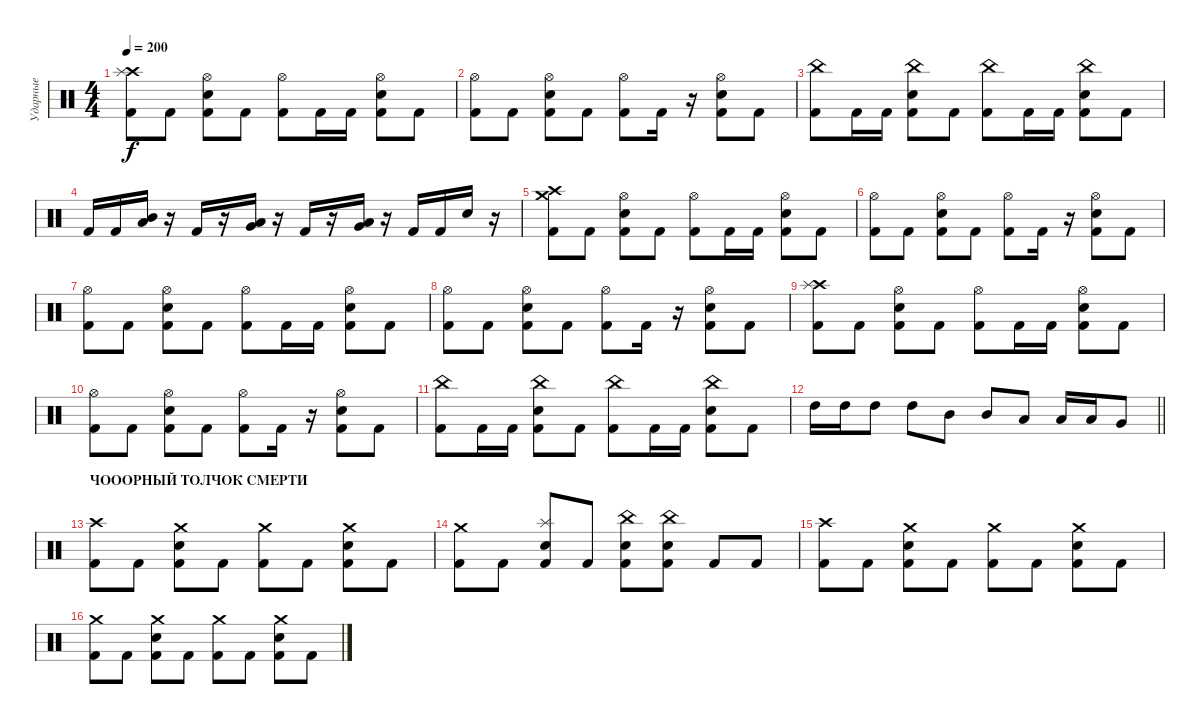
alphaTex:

\track ("Ударные" "Ударные") {instrument percussion}
\staff {score}
\articulation defaults
\ts (4 4)
\tempo 200
\clef neutral
\ks c
("Kick (hit) 2" "Crash high (hit)" "Splash (hit)").8{dy f} "Kick (hit) 2".8 ("Kick (hit) 2" "Electric Snare (hit)" "Hi-Hat (open)").8 "Kick (hit) 2".8 ("Kick (hit) 2" "Hi-Hat (open)").8 "Kick (hit) 2".16 "Kick (hit) 2".16 ("Kick (hit) 2" "Electric Snare (hit)" "Hi-Hat (open)").8 "Kick (hit) 2".8 |
("Kick (hit) 2" "Hi-Hat (open)").8 "Kick (hit) 2".8 ("Kick (hit) 2" "Electric Snare (hit)" "Hi-Hat (open)").8 "Kick (hit) 2".8 ("Kick (hit) 2" "Hi-Hat (open)").8 "Kick (hit) 2".16 r.16 ("Kick (hit) 2" "Electric Snare (hit)" "Hi-Hat (open)").8 "Kick (hit) 2".8 |
("Kick (hit) 2" "China (hit)").8 "Kick (hit) 2".16 "Kick (hit) 2".16 ("Kick (hit) 2" "Electric Snare (hit)" "China (hit)").8 "Kick (hit) 2".8 ("Kick (hit) 2" "China (hit)").8 "Kick (hit) 2".16 "Kick (hit) 2".16 ("Kick (hit) 2" "Electric Snare (hit)" "China (hit)").8 "Kick (hit) 2".8 |
"Kick (hit) 2".16 "Kick (hit) 2".16 ("Low Tom (hit)" "Mid Tom (hit)").16 r.16 "Kick (hit) 2".16 r.16 ("Very Low Tom (hit)" "Low Tom (hit)").16 r.16 "Kick (hit) 2".16 r.16 ("Low Floor Tom (hit)" "Very Low Tom (hit)").16 r.16 "Kick (hit) 2".16 "Kick (hit) 2".16 "Electric Snare (hit)".16 r.16 |
("Kick (hit) 2" "Crash high (hit)" "Crash medium (hit)").8 "Kick (hit) 2".8 ("Kick (hit) 2" "Electric Snare (hit)" "Hi-Hat (open)").8 "Kick (hit) 2".8 ("Kick (hit) 2" "Hi-Hat (open)").8 "Kick (hit) 2".16 "Kick (hit) 2".16 ("Kick (hit) 2" "Electric Snare (hit)" "Hi-Hat (open)").8 "Kick (hit) 2".8 |
("Kick (hit) 2" "Hi-Hat (open)").8 "Kick (hit) 2".8 ("Kick (hit) 2" "Electric Snare (hit)" "Hi-Hat (open)").8 "Kick (hit) 2".8 ("Kick (hit) 2" "Hi-Hat (open)").8 "Kick (hit) 2".16 r.16 ("Kick (hit) 2" "Electric Snare (hit)" "Hi-Hat (open)").8 "Kick (hit) 2".8 |
("Kick (hit) 2" "Hi-Hat (open)").8 "Kick (hit) 2".8 ("Kick (hit) 2" "Electric Snare (hit)" "Hi-Hat (open)").8 "Kick (hit) 2".8 ("Kick (hit) 2" "Hi-Hat (open)").8 "Kick (hit) 2".16 "Kick (hit) 2".16 ("Kick (hit) 2" "Electric Snare (hit)" "Hi-Hat (open)").8 "Kick (hit) 2".8 |
("Kick (hit) 2" "Hi-Hat (open)").8 "Kick (hit) 2".8 ("Kick (hit) 2" "Electric Snare (hit)" "Hi-Hat (open)").8 "Kick (hit) 2".8 ("Kick (hit) 2" "Hi-Hat (open)").8 "Kick (hit) 2".16 r.16 ("Kick (hit) 2" "Electric Snare (hit)" "Hi-Hat (open)").8 "Kick (hit) 2".8 |
("Kick (hit) 2" "Crash high (hit)" "Splash (hit)").8 "Kick (hit) 2".8 ("Kick (hit) 2" "Electric Snare (hit)" "Hi-Hat (open)").8 "Kick (hit) 2".8 ("Kick (hit) 2" "Hi-Hat (open)").8 "Kick (hit) 2".16 "Kick (hit) 2".16 ("Kick (hit) 2" "Electric Snare (hit)" "Hi-Hat (open)").8 "Kick (hit) 2".8 |
("Kick (hit) 2" "Hi-Hat (open)").8 "Kick (hit) 2".8 ("Kick (hit) 2" "Electric Snare (hit)" "Hi-Hat (open)").8 "Kick (hit) 2".8 ("Kick (hit) 2" "Hi-Hat (open)").8 "Kick (hit) 2".16 r.16 ("Kick (hit) 2" "Electric Snare (hit)" "Hi-Hat (open)").8 "Kick (hit) 2".8 |
("Kick (hit) 2" "China (hit)").8 "Kick (hit) 2".16 "Kick (hit) 2".16 ("Kick (hit) 2" "Electric Snare (hit)" "China (hit)").8 "Kick (hit) 2".8 ("Kick (hit) 2" "China (hit)").8 "Kick (hit) 2".16 "Kick (hit) 2".16 ("Kick (hit) 2" "Electric Snare (hit)" "China (hit)").8 "Kick (hit) 2".8 |
\barLineRight lightlight "High Tom (hit)".16 "High Tom (hit)".16 "High Tom (hit)".8 "High Tom (hit)".8 "Mid Tom (hit)".8 "Mid Tom (hit)".8 "Low Tom (hit)".8 "Low Tom (hit)".16 "Low Tom (hit)".16 "Very Low Tom (hit)".8
|
\section ("" "ЧОООРНЫЙ ТОЛЧОК СМЕРТИ")
("Kick (hit) 2" "Crash high (hit)").8 "Kick (hit) 2".8 ("Kick (hit) 2" "Electric Snare (hit)" "Crash medium (hit)").8 "Kick (hit) 2".8 ("Kick (hit) 2" "Crash medium (hit)").8 "Kick (hit) 2".8 ("Kick (hit) 2" "Electric Snare (hit)" "Crash medium (hit)").8 "Kick (hit) 2".8 |
("Kick (hit) 2" "Crash medium (hit)").8 "Kick (hit) 2".8 ("Kick (hit) 2" "Electric Snare (hit)" "Splash (hit)").8 "Kick (hit) 2".8 ("Kick (hit) 2" "Electric Snare (hit)" "China (hit)").8 ("Kick (hit) 2" "Electric Snare (hit)" "China (hit)").8 "Kick (hit) 2".8 "Kick (hit) 2".8 |
("Kick (hit) 2" "Crash high (hit)").8 "Kick (hit) 2".8 ("Kick (hit) 2" "Electric Snare (hit)" "Crash medium (hit)").8 "Kick (hit) 2".8 ("Kick (hit) 2" "Crash medium (hit)").8 "Kick (hit) 2".8 ("Kick (hit) 2" "Electric Snare (hit)" "Crash medium (hit)").8 "Kick (hit) 2".8 |
("Kick (hit) 2" "Crash medium (hit)").8 "Kick (hit) 2".8 ("Kick (hit) 2" "Electric Snare (hit)" "Crash medium (hit)").8 "Kick (hit) 2".8 ("Kick (hit) 2" "Crash medium (hit)").8 "Kick (hit) 2".8 ("Kick (hit) 2" "Electric Snare (hit)" "Crash medium (hit)").8 "Kick (hit) 2".8
